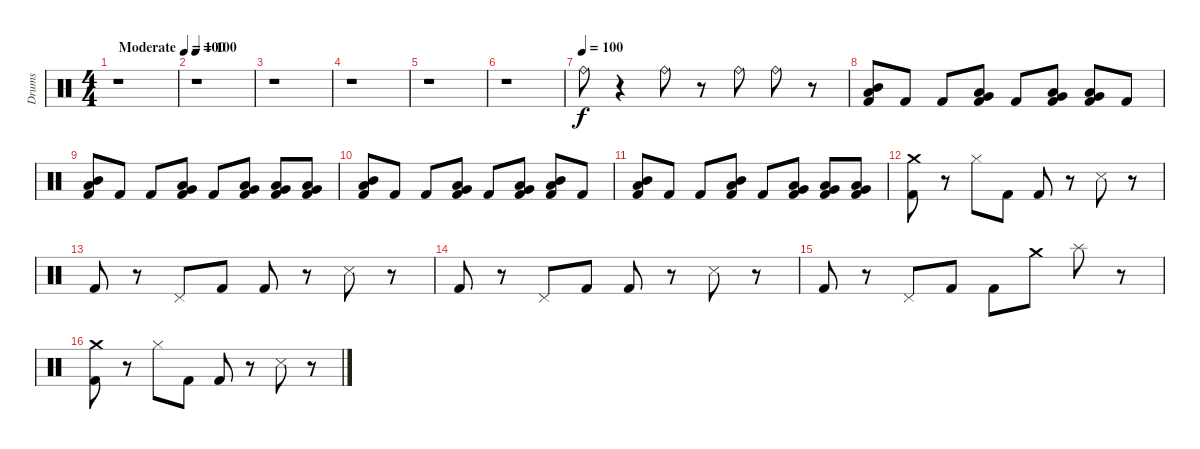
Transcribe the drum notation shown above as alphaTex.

\track ("Drums" "Drums") {instrument percussion}
\staff {score}
\articulation defaults
\ts (4 4)
\tempo (100 "Moderate")
\clef neutral
\ks c
r.1{dy f} |
\tempo 100
r.1 |
r.1 |
r.1 |
r.1 |
r.1 |
\tempo (100)
"Ride (bell)".8{volume 9 balance 8} r.4 "Ride (bell)".8 r.8 "Ride (bell)".8 "Ride (bell)".8 r.8 |
("Mid Tom (hit)" "Kick (hit) 2" "Low Tom (hit)").8{volume 14 balance 8} "Kick (hit) 2".8 "Kick (hit) 2".8 ("Very Low Tom (hit)" "Kick (hit) 2" "Low Tom (hit)").8 "Kick (hit) 2".8 ("Low Floor Tom (hit)" "Very Low Tom (hit)" "Kick (hit) 2").8 ("Low Floor Tom (hit)" "Kick (hit) 2" "Very Low Tom (hit)").8 "Kick (hit) 2".8 |
("Low Tom (hit)" "Kick (hit) 2" "Mid Tom (hit)").8 "Kick (hit) 2".8 "Kick (hit) 2".8 ("Very Low Tom (hit)" "Kick (hit) 2" "Low Tom (hit)").8 "Kick (hit) 2".8 ("Low Floor Tom (hit)" "Very Low Tom (hit)" "Kick (hit) 2").8 ("Low Floor Tom (hit)" "Very Low Tom (hit)" "Kick (hit) 2").8 ("Very Low Tom (hit)" "Low Tom (hit)" "Kick (hit) 2").8 |
("Low Tom (hit)" "Mid Tom (hit)" "Kick (hit) 2").8 "Kick (hit) 2".8 "Kick (hit) 2".8 ("Very Low Tom (hit)" "Low Tom (hit)" "Kick (hit) 2").8 "Kick (hit) 2".8 ("Very Low Tom (hit)" "Low Tom (hit)" "Kick (hit) 2").8 ("Low Tom (hit)" "Mid Tom (hit)" "Kick (hit) 2").8 "Kick (hit) 2".8 |
("Low Tom (hit)" "Mid Tom (hit)" "Kick (hit) 2").8 "Kick (hit) 2".8 "Kick (hit) 2".8 ("Low Tom (hit)" "Mid Tom (hit)" "Kick (hit) 2").8 "Kick (hit) 2".8 ("Very Low Tom (hit)" "Low Tom (hit)" "Kick (hit) 2").8 ("Very Low Tom (hit)" "Low Tom (hit)" "Kick (hit) 2").8 ("Very Low Tom (hit)" "Low Floor Tom (hit)" "Kick (hit) 2").8 |
("Kick (hit) 2" "Crash medium (hit)").8 r.8 "Hi-Hat (closed)".8 "Kick (hit) 2".8 "Kick (hit) 2".8 r.8 "Snare (side stick) 3".8 r.8 |
"Kick (hit) 2".8 r.8 "Pedal Hi-Hat (hit)".8 "Kick (hit) 2".8 "Kick (hit) 2".8 r.8 "Snare (side stick) 3".8 r.8 |
"Kick (hit) 2".8 r.8 "Pedal Hi-Hat (hit)".8 "Kick (hit) 2".8 "Kick (hit) 2".8 r.8 "Snare (side stick) 3".8 r.8 |
"Kick (hit) 2".8 r.8 "Pedal Hi-Hat (hit)".8 "Kick (hit) 2".8 "Kick (hit) 2".8 "Crash medium (hit)".8 "Splash (hit)".8 r.8 |
("Kick (hit) 2" "Crash medium (hit)").8 r.8 "Hi-Hat (closed)".8 "Kick (hit) 2".8 "Kick (hit) 2".8 r.8 "Snare (side stick) 3".8 r.8
